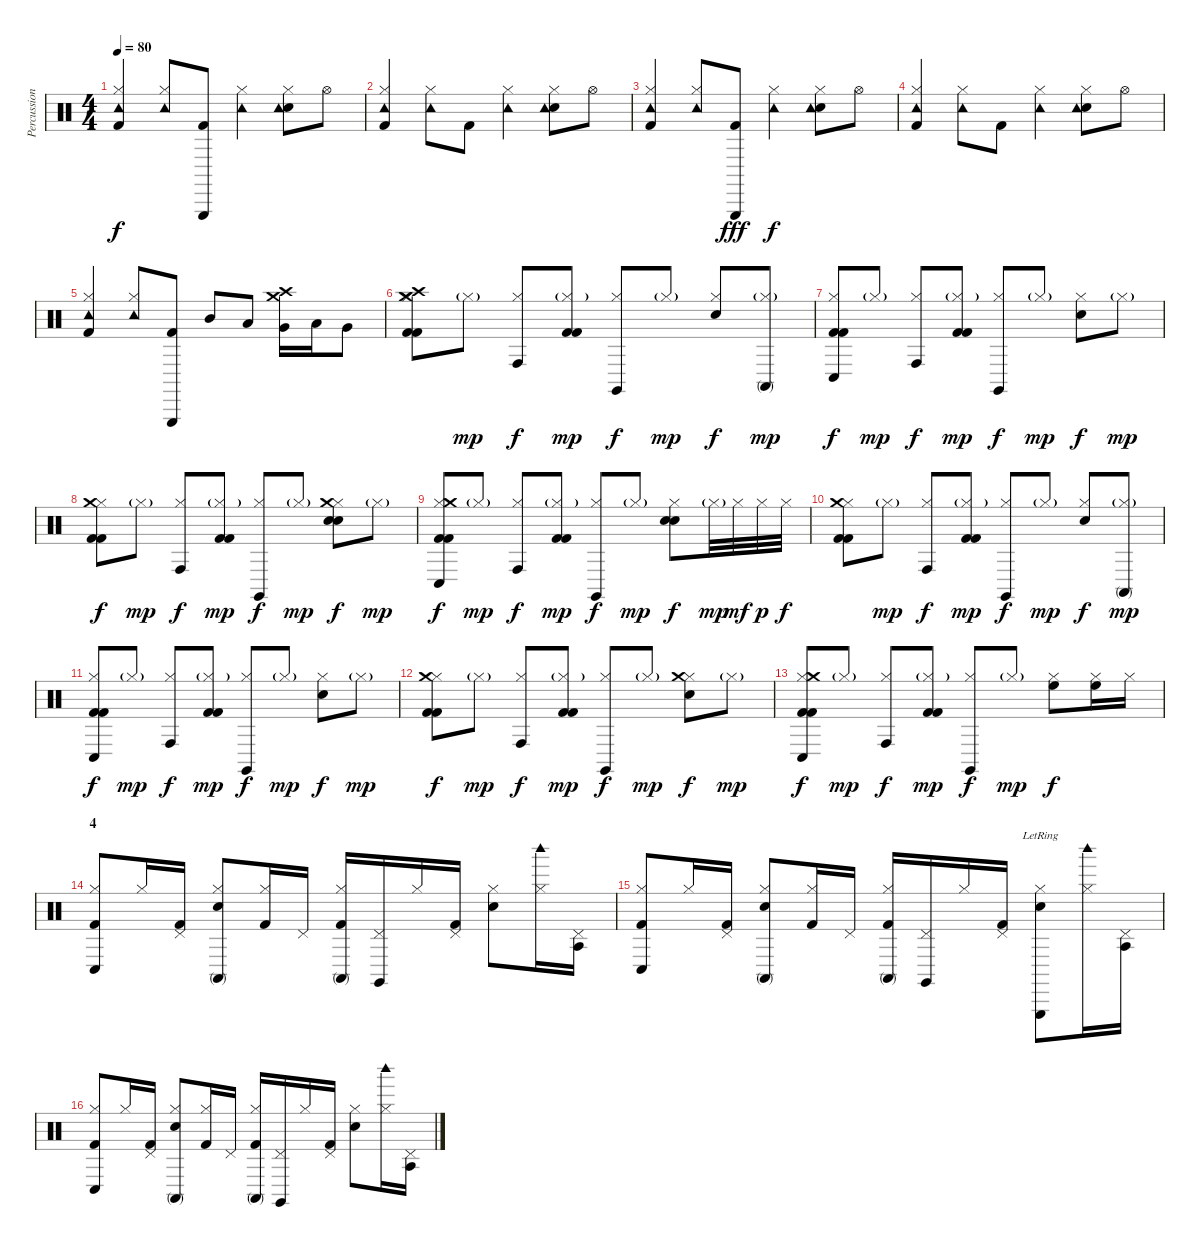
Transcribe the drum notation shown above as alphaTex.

\track ("Percussion" "Percussion") {instrument percussion}
\staff {score}
\articulation defaults
\ts (4 4)
\tempo 80
\clef neutral
\ks c
("Kick (hit) 2" "Hi-Hat (closed)" "Tambourine (hit)").4{dy f} ("Hi-Hat (closed)" "Tambourine (hit)").8 ("Kick (hit) 2" "Triangle (hit)").8 ("Hi-Hat (closed)" "Tambourine (hit)").4 ("Snare (hit) 2" "Hi-Hat (closed)" "Tambourine (hit)").8 "Hi-Hat (open)".8 |
("Kick (hit) 2" "Hi-Hat (closed)" "Tambourine (hit)").4 ("Hi-Hat (closed)" "Tambourine (hit)").8 "Kick (hit) 2".8 ("Hi-Hat (closed)" "Tambourine (hit)").4 ("Snare (hit) 2" "Hi-Hat (closed)" "Tambourine (hit)").8 "Hi-Hat (open)".8 |
("Kick (hit) 2" "Hi-Hat (closed)" "Tambourine (hit)").4 ("Hi-Hat (closed)" "Tambourine (hit)").8 ("Kick (hit) 2" "Triangle (hit)").8{dy fff} ("Hi-Hat (closed)" "Tambourine (hit)").4{dy f} ("Snare (hit) 2" "Hi-Hat (closed)" "Tambourine (hit)").8 "Hi-Hat (open)".8 |
("Kick (hit) 2" "Hi-Hat (closed)" "Tambourine (hit)").4 ("Hi-Hat (closed)" "Tambourine (hit)").8 "Kick (hit) 2".8 ("Hi-Hat (closed)" "Tambourine (hit)").4 ("Snare (hit) 2" "Hi-Hat (closed)" "Tambourine (hit)").8 "Hi-Hat (open)".8 |
("Kick (hit) 2" "Hi-Hat (closed)" "Tambourine (hit)").4 ("Hi-Hat (closed)" "Tambourine (hit)").8 ("Kick (hit) 2" "Triangle (hit)").8 "Mid Tom (hit)".8 "Low Tom (hit)".8 ("Very Low Tom (hit)" "Crash high (hit)" "Crash medium (hit)").16 "Low Floor Tom (hit)".16 "Very Low Tom (hit)".8 |
("Kick (hit) 2" "Kick (hit) 2" "Hi-Hat (closed)" "Crash medium (hit)" "Crash high (hit)").8 "Hi-Hat (closed)"{g}.8{dy mp} ("Hi-Hat (closed)" "Conga high (hit)").8{dy f} ("Kick (hit) 2" "Kick (hit) 2" "Hi-Hat (closed)"{g}).8{dy mp} ("Hi-Hat (closed)" "Claves (hit)").8{dy f} "Hi-Hat (closed)"{g}.8{dy mp} ("Snare (hit) 2" "Hi-Hat (closed)").8{dy f} ("Hi-Hat (closed)"{g} "Conga high (mute)").8{dy mp} |
("Kick (hit) 2" "Kick (hit) 2" "Hi-Hat (closed)" "Conga low (hit)").8{dy f} "Hi-Hat (closed)"{g}.8{dy mp} ("Hi-Hat (closed)" "Conga high (hit)").8{dy f} ("Kick (hit) 2" "Kick (hit) 2" "Hi-Hat (closed)"{g}).8{dy mp} ("Hi-Hat (closed)" "Claves (hit)").8{dy f} "Hi-Hat (closed)"{g}.8{dy mp} ("Snare (hit) 2" "Hi-Hat (closed)").8{dy f} "Hi-Hat (closed)"{g}.8{dy mp} |
("Kick (hit) 2" "Kick (hit) 2" "Hi-Hat (closed)" "Crash medium (hit)").8{dy f} "Hi-Hat (closed)"{g}.8{dy mp} ("Hi-Hat (closed)" "Conga high (hit)").8{dy f} ("Kick (hit) 2" "Kick (hit) 2" "Hi-Hat (closed)"{g}).8{dy mp} ("Hi-Hat (closed)" "Claves (hit)").8{dy f} "Hi-Hat (closed)"{g}.8{dy mp} ("Snare (hit) 2" "Snare (hit) 2" "Hi-Hat (closed)" "Crash medium (hit)").8{dy f} "Hi-Hat (closed)"{g}.8{dy mp} |
("Kick (hit) 2" "Kick (hit) 2" "Hi-Hat (closed)" "Crash medium (hit)" "Conga low (hit)").8{dy f} "Hi-Hat (closed)"{g}.8{dy mp} ("Hi-Hat (closed)" "Conga high (hit)").8{dy f} ("Kick (hit) 2" "Kick (hit) 2" "Hi-Hat (closed)"{g}).8{dy mp} ("Hi-Hat (closed)" "Claves (hit)").8{dy f} "Hi-Hat (closed)"{g}.8{dy mp} ("Snare (hit) 2" "Snare (hit) 2" "Hi-Hat (closed)").8{dy f} "Hi-Hat (closed)"{g}.32{dy mp} "Hi-Hat (closed)".32{dy mf} "Hi-Hat (closed)".32{dy p} "Hi-Hat (closed)".32{dy f} |
("Kick (hit) 2" "Kick (hit) 2" "Hi-Hat (closed)" "Crash medium (hit)").8 "Hi-Hat (closed)"{g}.8{dy mp} ("Hi-Hat (closed)" "Conga high (hit)").8{dy f} ("Kick (hit) 2" "Kick (hit) 2" "Hi-Hat (closed)"{g}).8{dy mp} ("Hi-Hat (closed)" "Claves (hit)").8{dy f} "Hi-Hat (closed)"{g}.8{dy mp} ("Snare (hit) 2" "Hi-Hat (closed)").8{dy f} ("Hi-Hat (closed)"{g} "Conga high (mute)").8{dy mp} |
("Kick (hit) 2" "Kick (hit) 2" "Hi-Hat (closed)" "Conga low (hit)").8{dy f} "Hi-Hat (closed)"{g}.8{dy mp} ("Hi-Hat (closed)" "Conga high (hit)").8{dy f} ("Kick (hit) 2" "Kick (hit) 2" "Hi-Hat (closed)"{g}).8{dy mp} ("Hi-Hat (closed)" "Claves (hit)").8{dy f} "Hi-Hat (closed)"{g}.8{dy mp} ("Snare (hit) 2" "Hi-Hat (closed)").8{dy f} "Hi-Hat (closed)"{g}.8{dy mp} |
("Kick (hit) 2" "Kick (hit) 2" "Hi-Hat (closed)" "Crash medium (hit)").8{dy f} "Hi-Hat (closed)"{g}.8{dy mp} ("Hi-Hat (closed)" "Conga high (hit)").8{dy f} ("Kick (hit) 2" "Kick (hit) 2" "Hi-Hat (closed)"{g}).8{dy mp} ("Hi-Hat (closed)" "Claves (hit)").8{dy f} "Hi-Hat (closed)"{g}.8{dy mp} ("Snare (hit) 2" "Hi-Hat (closed)" "Crash medium (hit)").8{dy f} "Hi-Hat (closed)"{g}.8{dy mp} |
("Kick (hit) 2" "Kick (hit) 2" "Hi-Hat (closed)" "Crash medium (hit)" "Conga low (hit)").8{dy f} "Hi-Hat (closed)"{g}.8{dy mp} ("Hi-Hat (closed)" "Conga high (hit)").8{dy f} ("Kick (hit) 2" "Kick (hit) 2" "Hi-Hat (closed)"{g}).8{dy mp} ("Hi-Hat (closed)" "Claves (hit)").8{dy f} "Hi-Hat (closed)"{g}.8{dy mp} ("High Floor Tom (hit)" "Hi-Hat (closed)").8{dy f} ("High Floor Tom (hit)" "Hi-Hat (closed)").16 "Hi-Hat (closed)".16 |
\section ("" "4")
("Conga low (hit)" "Kick (hit) 2" "Hi-Hat (closed)").8 "Hi-Hat (closed)".16 ("Kick (hit) 2" "Pedal Hi-Hat (hit)").16 ("Conga high (mute)" "Snare (hit) 2" "Hi-Hat (closed)").8 ("Kick (hit) 2" "Hi-Hat (closed)").16 "Pedal Hi-Hat (hit)".16 ("Conga high (mute)" "Kick (hit) 2" "Hi-Hat (closed)").16 ("Claves (hit)" "Pedal Hi-Hat (hit)").16 "Hi-Hat (closed)".16 ("Kick (hit) 2" "Pedal Hi-Hat (hit)").16 ("Snare (hit) 2" "Hi-Hat (closed)").8 ("Woodblock high (hit)" "Hi-Hat (closed)").16 ("Agogo tow (hit)" "Pedal Hi-Hat (hit)").16 |
("Conga low (hit)" "Kick (hit) 2" "Hi-Hat (closed)").8 "Hi-Hat (closed)".16 ("Kick (hit) 2" "Pedal Hi-Hat (hit)").16 ("Conga high (mute)" "Snare (hit) 2" "Hi-Hat (closed)").8 ("Kick (hit) 2" "Hi-Hat (closed)").16 "Pedal Hi-Hat (hit)".16 ("Conga high (mute)" "Kick (hit) 2" "Hi-Hat (closed)").16 ("Claves (hit)" "Pedal Hi-Hat (hit)").16 "Hi-Hat (closed)".16 ("Kick (hit) 2" "Pedal Hi-Hat (hit)").16 ("Triangle (hit)"{lr} "Snare (hit) 2" "Hi-Hat (closed)").8 ("Woodblock high (hit)" "Hi-Hat (closed)").16 ("Agogo tow (hit)" "Pedal Hi-Hat (hit)").16 |
("Conga low (hit)" "Kick (hit) 2" "Hi-Hat (closed)").8 "Hi-Hat (closed)".16 ("Kick (hit) 2" "Pedal Hi-Hat (hit)").16 ("Conga high (mute)" "Snare (hit) 2" "Hi-Hat (closed)").8 ("Kick (hit) 2" "Hi-Hat (closed)").16 "Pedal Hi-Hat (hit)".16 ("Conga high (mute)" "Kick (hit) 2" "Hi-Hat (closed)").16 ("Claves (hit)" "Pedal Hi-Hat (hit)").16 "Hi-Hat (closed)".16 ("Kick (hit) 2" "Pedal Hi-Hat (hit)").16 ("Snare (hit) 2" "Hi-Hat (closed)").8 ("Woodblock high (hit)" "Hi-Hat (closed)").16 ("Agogo tow (hit)" "Pedal Hi-Hat (hit)").16
